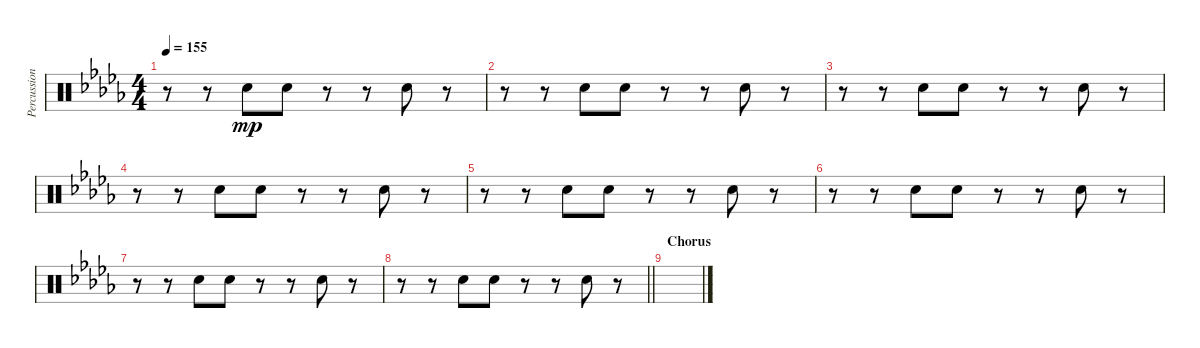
\track ("Percussions" "Percussion") {instrument percussion}
\staff {score}
\articulation defaults
\ts (4 4)
\tempo 155
\clef neutral
\ks db
r.8{dy mp} r.8 "Hand Clap (hit)".8 "Hand Clap (hit)".8 r.8 r.8 "Hand Clap (hit)".8 r.8 |
r.8 r.8 "Hand Clap (hit)".8 "Hand Clap (hit)".8 r.8 r.8 "Hand Clap (hit)".8 r.8 |
r.8 r.8 "Hand Clap (hit)".8 "Hand Clap (hit)".8 r.8 r.8 "Hand Clap (hit)".8 r.8 |
r.8 r.8 "Hand Clap (hit)".8 "Hand Clap (hit)".8 r.8 r.8 "Hand Clap (hit)".8 r.8 |
r.8 r.8 "Hand Clap (hit)".8 "Hand Clap (hit)".8 r.8 r.8 "Hand Clap (hit)".8 r.8 |
r.8 r.8 "Hand Clap (hit)".8 "Hand Clap (hit)".8 r.8 r.8 "Hand Clap (hit)".8 r.8 |
r.8 r.8 "Hand Clap (hit)".8 "Hand Clap (hit)".8 r.8 r.8 "Hand Clap (hit)".8 r.8 |
\barLineRight lightlight
r.8 r.8 "Hand Clap (hit)".8 "Hand Clap (hit)".8 r.8 r.8 "Hand Clap (hit)".8 r.8 |
\section ("" "Chorus")
